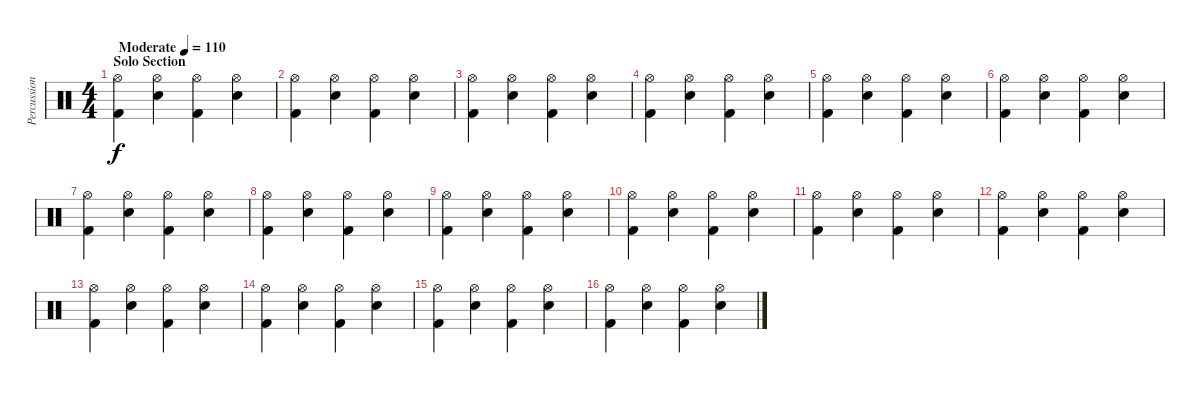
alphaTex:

\track ("Percussion" "Percussion") {instrument percussion}
\staff {score}
\articulation defaults
\ts (4 4)
\section ("" "Solo Section")
\tempo (110 "Moderate")
\clef neutral
\ks c
("Hi-Hat (open)" "Kick (hit) 2").4{dy f} ("Hi-Hat (open)" "Electric Snare (hit)").4 ("Hi-Hat (open)" "Kick (hit) 2").4 ("Hi-Hat (open)" "Electric Snare (hit)").4 |
("Hi-Hat (open)" "Kick (hit) 2").4 ("Hi-Hat (open)" "Electric Snare (hit)").4 ("Hi-Hat (open)" "Kick (hit) 2").4 ("Hi-Hat (open)" "Electric Snare (hit)").4 |
("Hi-Hat (open)" "Kick (hit) 2").4 ("Hi-Hat (open)" "Electric Snare (hit)").4 ("Hi-Hat (open)" "Kick (hit) 2").4 ("Hi-Hat (open)" "Electric Snare (hit)").4 |
("Hi-Hat (open)" "Kick (hit) 2").4 ("Hi-Hat (open)" "Electric Snare (hit)").4 ("Hi-Hat (open)" "Kick (hit) 2").4 ("Hi-Hat (open)" "Electric Snare (hit)").4 |
("Hi-Hat (open)" "Kick (hit) 2").4 ("Hi-Hat (open)" "Electric Snare (hit)").4 ("Hi-Hat (open)" "Kick (hit) 2").4 ("Hi-Hat (open)" "Electric Snare (hit)").4 |
("Hi-Hat (open)" "Kick (hit) 2").4 ("Hi-Hat (open)" "Electric Snare (hit)").4 ("Hi-Hat (open)" "Kick (hit) 2").4 ("Hi-Hat (open)" "Electric Snare (hit)").4 |
("Hi-Hat (open)" "Kick (hit) 2").4 ("Hi-Hat (open)" "Electric Snare (hit)").4 ("Hi-Hat (open)" "Kick (hit) 2").4 ("Hi-Hat (open)" "Electric Snare (hit)").4 |
("Hi-Hat (open)" "Kick (hit) 2").4 ("Hi-Hat (open)" "Electric Snare (hit)").4 ("Hi-Hat (open)" "Kick (hit) 2").4 ("Hi-Hat (open)" "Electric Snare (hit)").4 |
("Hi-Hat (open)" "Kick (hit) 2").4 ("Hi-Hat (open)" "Electric Snare (hit)").4 ("Hi-Hat (open)" "Kick (hit) 2").4 ("Hi-Hat (open)" "Electric Snare (hit)").4 |
("Hi-Hat (open)" "Kick (hit) 2").4 ("Hi-Hat (open)" "Electric Snare (hit)").4 ("Hi-Hat (open)" "Kick (hit) 2").4 ("Hi-Hat (open)" "Electric Snare (hit)").4 |
("Hi-Hat (open)" "Kick (hit) 2").4 ("Hi-Hat (open)" "Electric Snare (hit)").4 ("Hi-Hat (open)" "Kick (hit) 2").4 ("Hi-Hat (open)" "Electric Snare (hit)").4 |
("Hi-Hat (open)" "Kick (hit) 2").4 ("Hi-Hat (open)" "Electric Snare (hit)").4 ("Hi-Hat (open)" "Kick (hit) 2").4 ("Hi-Hat (open)" "Electric Snare (hit)").4 |
("Hi-Hat (open)" "Kick (hit) 2").4 ("Hi-Hat (open)" "Electric Snare (hit)").4 ("Hi-Hat (open)" "Kick (hit) 2").4 ("Hi-Hat (open)" "Electric Snare (hit)").4 |
("Hi-Hat (open)" "Kick (hit) 2").4 ("Hi-Hat (open)" "Electric Snare (hit)").4 ("Hi-Hat (open)" "Kick (hit) 2").4 ("Hi-Hat (open)" "Electric Snare (hit)").4 |
("Hi-Hat (open)" "Kick (hit) 2").4 ("Hi-Hat (open)" "Electric Snare (hit)").4 ("Hi-Hat (open)" "Kick (hit) 2").4 ("Hi-Hat (open)" "Electric Snare (hit)").4 |
("Hi-Hat (open)" "Kick (hit) 2").4 ("Hi-Hat (open)" "Electric Snare (hit)").4 ("Hi-Hat (open)" "Kick (hit) 2").4 ("Hi-Hat (open)" "Electric Snare (hit)").4
